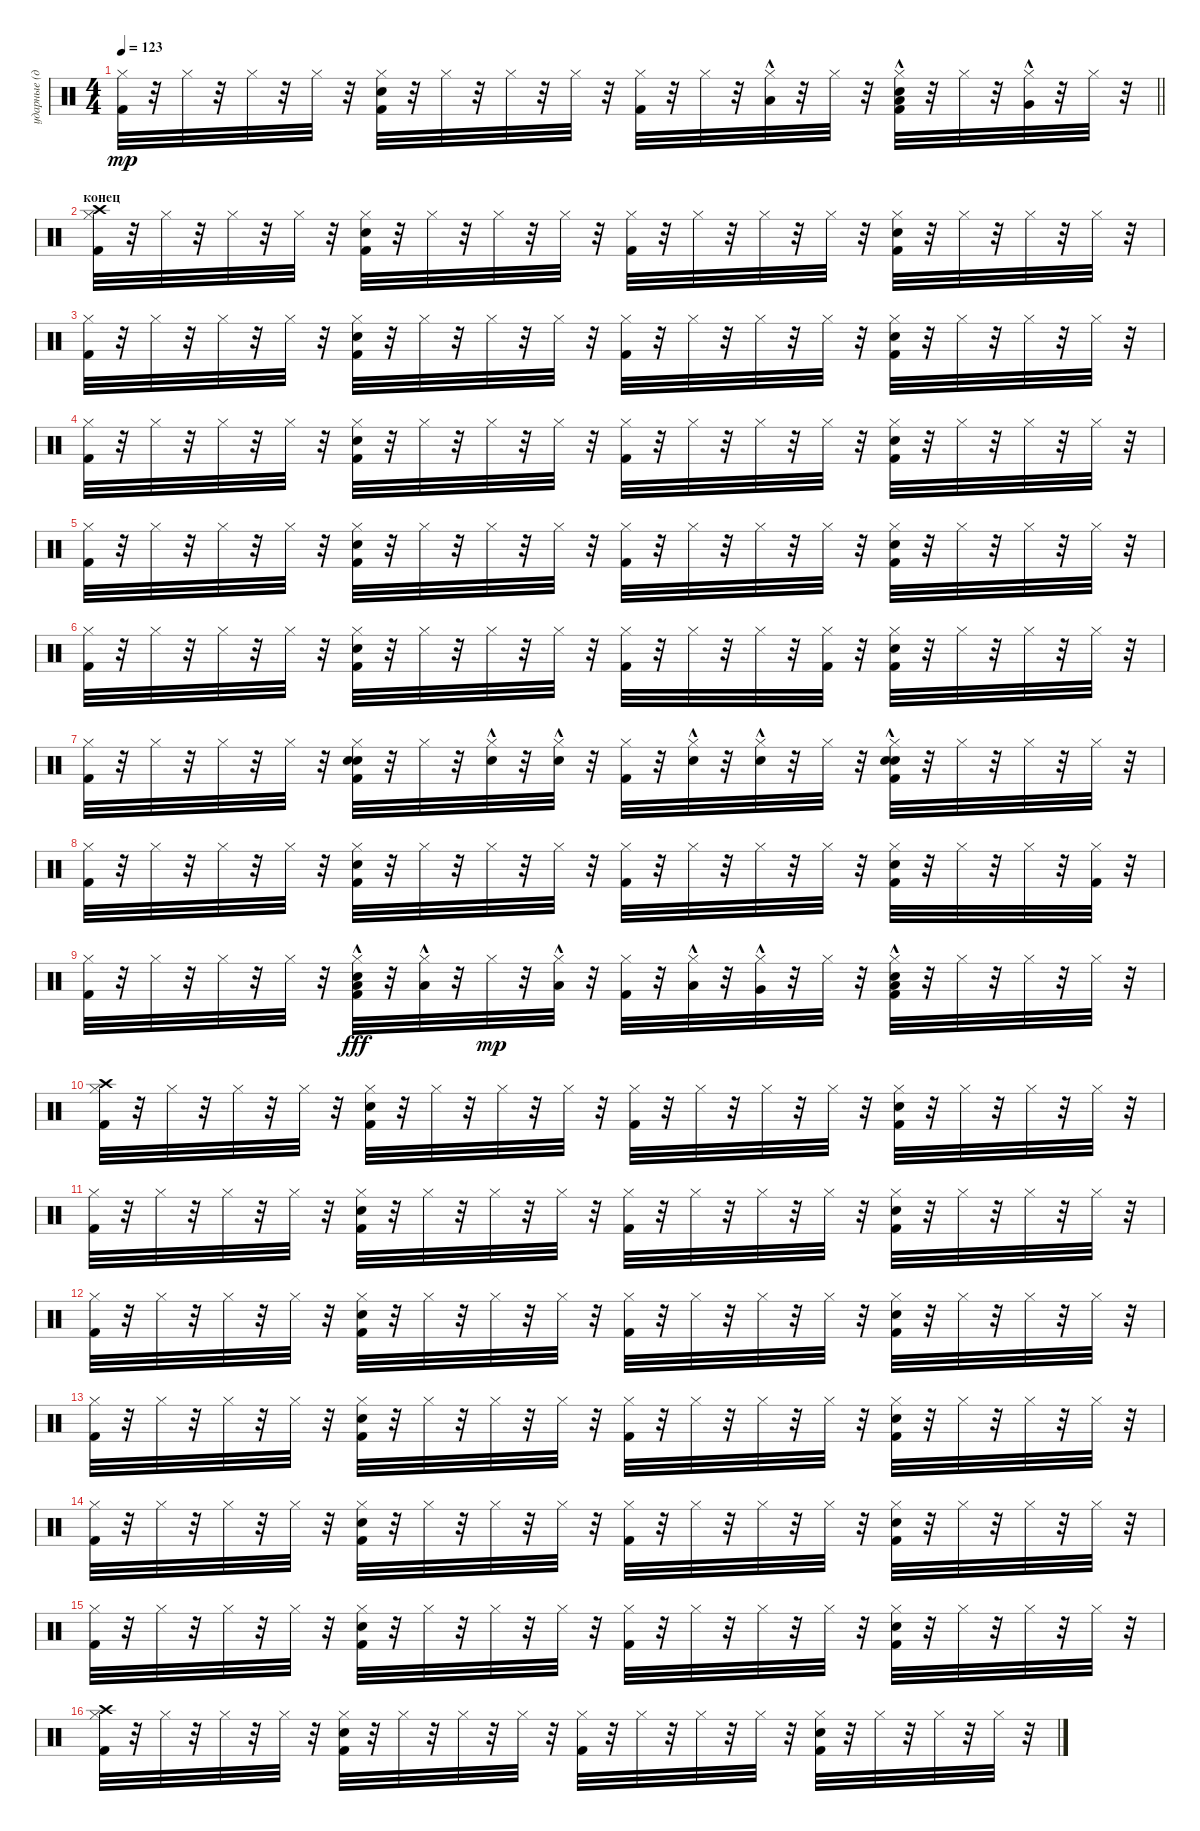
\track ("ударные (драм-машина)" "ударные (д") {instrument percussion}
\staff {score}
\articulation defaults
\ts (4 4)
\tempo 123
\clef neutral
\barLineRight lightlight
\ks c
("Kick (hit) 2" "Hi-Hat (closed)").32{dy mp} r.32 "Hi-Hat (closed)".32 r.32 "Hi-Hat (closed)".32 r.32 "Hi-Hat (closed)".32 r.32 ("Kick (hit) 2" "Snare (hit) 2" "Hi-Hat (closed)").32 r.32 "Hi-Hat (closed)".32 r.32 "Hi-Hat (closed)".32 r.32 "Hi-Hat (closed)".32 r.32 ("Kick (hit) 2" "Hi-Hat (closed)").32 r.32 "Hi-Hat (closed)".32 r.32 ("Low Tom (hit)"{hac} "Hi-Hat (closed)").32 r.32 "Hi-Hat (closed)".32 r.32 ("Low Tom (hit)"{hac} "Kick (hit) 2" "Snare (hit) 2" "Hi-Hat (closed)").32 r.32 "Hi-Hat (closed)".32 r.32 ("Very Low Tom (hit)"{hac} "Hi-Hat (closed)").32 r.32 "Hi-Hat (closed)".32 r.32 |
\section ("" "конец")
("Hi-Hat (closed)" "Kick (hit) 2" "Crash high (hit)").32 r.32 "Hi-Hat (closed)".32 r.32 "Hi-Hat (closed)".32 r.32 "Hi-Hat (closed)".32 r.32 ("Kick (hit) 2" "Hi-Hat (closed)" "Snare (hit) 2").32 r.32 "Hi-Hat (closed)".32 r.32 "Hi-Hat (closed)".32 r.32 "Hi-Hat (closed)".32 r.32 ("Hi-Hat (closed)" "Kick (hit) 2").32 r.32 "Hi-Hat (closed)".32 r.32 "Hi-Hat (closed)".32 r.32 "Hi-Hat (closed)".32 r.32 ("Kick (hit) 2" "Hi-Hat (closed)" "Snare (hit) 2").32 r.32 "Hi-Hat (closed)".32 r.32 "Hi-Hat (closed)".32 r.32 "Hi-Hat (closed)".32 r.32 |
("Kick (hit) 2" "Hi-Hat (closed)").32 r.32 "Hi-Hat (closed)".32 r.32 "Hi-Hat (closed)".32 r.32 "Hi-Hat (closed)".32 r.32 ("Kick (hit) 2" "Snare (hit) 2" "Hi-Hat (closed)").32 r.32 "Hi-Hat (closed)".32 r.32 "Hi-Hat (closed)".32 r.32 "Hi-Hat (closed)".32 r.32 ("Kick (hit) 2" "Hi-Hat (closed)").32 r.32 "Hi-Hat (closed)".32 r.32 "Hi-Hat (closed)".32 r.32 "Hi-Hat (closed)".32 r.32 ("Kick (hit) 2" "Snare (hit) 2" "Hi-Hat (closed)").32 r.32 "Hi-Hat (closed)".32 r.32 "Hi-Hat (closed)".32 r.32 "Hi-Hat (closed)".32 r.32 |
("Kick (hit) 2" "Hi-Hat (closed)").32 r.32 "Hi-Hat (closed)".32 r.32 "Hi-Hat (closed)".32 r.32 "Hi-Hat (closed)".32 r.32 ("Kick (hit) 2" "Snare (hit) 2" "Hi-Hat (closed)").32 r.32 "Hi-Hat (closed)".32 r.32 "Hi-Hat (closed)".32 r.32 "Hi-Hat (closed)".32 r.32 ("Kick (hit) 2" "Hi-Hat (closed)").32 r.32 "Hi-Hat (closed)".32 r.32 "Hi-Hat (closed)".32 r.32 "Hi-Hat (closed)".32 r.32 ("Kick (hit) 2" "Snare (hit) 2" "Hi-Hat (closed)").32 r.32 "Hi-Hat (closed)".32 r.32 "Hi-Hat (closed)".32 r.32 "Hi-Hat (closed)".32 r.32 |
("Kick (hit) 2" "Hi-Hat (closed)").32 r.32 "Hi-Hat (closed)".32 r.32 "Hi-Hat (closed)".32 r.32 "Hi-Hat (closed)".32 r.32 ("Kick (hit) 2" "Snare (hit) 2" "Hi-Hat (closed)").32 r.32 "Hi-Hat (closed)".32 r.32 "Hi-Hat (closed)".32 r.32 "Hi-Hat (closed)".32 r.32 ("Kick (hit) 2" "Hi-Hat (closed)").32 r.32 "Hi-Hat (closed)".32 r.32 "Hi-Hat (closed)".32 r.32 "Hi-Hat (closed)".32 r.32 ("Kick (hit) 2" "Snare (hit) 2" "Hi-Hat (closed)").32 r.32 "Hi-Hat (closed)".32 r.32 "Hi-Hat (closed)".32 r.32 "Hi-Hat (closed)".32 r.32 |
("Kick (hit) 2" "Hi-Hat (closed)").32 r.32 "Hi-Hat (closed)".32 r.32 "Hi-Hat (closed)".32 r.32 "Hi-Hat (closed)".32 r.32 ("Kick (hit) 2" "Snare (hit) 2" "Hi-Hat (closed)").32 r.32 "Hi-Hat (closed)".32 r.32 "Hi-Hat (closed)".32 r.32 "Hi-Hat (closed)".32 r.32 ("Kick (hit) 2" "Hi-Hat (closed)").32 r.32 "Hi-Hat (closed)".32 r.32 "Hi-Hat (closed)".32 r.32 ("Kick (hit) 2" "Hi-Hat (closed)").32 r.32 ("Snare (hit) 2" "Hi-Hat (closed)" "Kick (hit) 2").32 r.32 "Hi-Hat (closed)".32 r.32 "Hi-Hat (closed)".32 r.32 "Hi-Hat (closed)".32 r.32 |
("Kick (hit) 2" "Hi-Hat (closed)").32 r.32 "Hi-Hat (closed)".32 r.32 "Hi-Hat (closed)".32 r.32 "Hi-Hat (closed)".32 r.32 ("Hand Clap (hit)" "Kick (hit) 2" "Snare (hit) 2" "Hi-Hat (closed)").32 r.32 "Hi-Hat (closed)".32 r.32 ("Hand Clap (hit)"{hac} "Hi-Hat (closed)").32 r.32 ("Hand Clap (hit)"{hac} "Hi-Hat (closed)").32 r.32 ("Kick (hit) 2" "Hi-Hat (closed)").32 r.32 ("Hand Clap (hit)"{hac} "Hi-Hat (closed)").32 r.32 ("Hand Clap (hit)"{hac} "Hi-Hat (closed)").32 r.32 "Hi-Hat (closed)".32 r.32 ("Kick (hit) 2" "Snare (hit) 2"{hac} "Hi-Hat (closed)" "Hand Clap (hit)").32 r.32 "Hi-Hat (closed)".32 r.32 "Hi-Hat (closed)".32 r.32 "Hi-Hat (closed)".32 r.32 |
("Kick (hit) 2" "Hi-Hat (closed)").32 r.32 "Hi-Hat (closed)".32 r.32 "Hi-Hat (closed)".32 r.32 "Hi-Hat (closed)".32 r.32 ("Kick (hit) 2" "Snare (hit) 2" "Hi-Hat (closed)").32 r.32 "Hi-Hat (closed)".32 r.32 "Hi-Hat (closed)".32 r.32 "Hi-Hat (closed)".32 r.32 ("Kick (hit) 2" "Hi-Hat (closed)").32 r.32 "Hi-Hat (closed)".32 r.32 "Hi-Hat (closed)".32 r.32 "Hi-Hat (closed)".32 r.32 ("Kick (hit) 2" "Snare (hit) 2" "Hi-Hat (closed)").32 r.32 "Hi-Hat (closed)".32 r.32 "Hi-Hat (closed)".32 r.32 ("Kick (hit) 2" "Hi-Hat (closed)").32 r.32 |
("Kick (hit) 2" "Hi-Hat (closed)").32 r.32 "Hi-Hat (closed)".32 r.32 "Hi-Hat (closed)".32 r.32 "Hi-Hat (closed)".32 r.32 ("Kick (hit) 2" "Snare (hit) 2" "Hi-Hat (closed)" "Low Tom (hit)"{hac}).32{dy fff} r.32 ("Hi-Hat (closed)" "Low Tom (hit)"{hac}).32 r.32 "Hi-Hat (closed)".32{dy mp} r.32 ("Low Tom (hit)"{hac} "Hi-Hat (closed)").32 r.32 ("Kick (hit) 2" "Hi-Hat (closed)").32 r.32 ("Low Tom (hit)"{hac} "Hi-Hat (closed)").32 r.32 ("Very Low Tom (hit)"{hac} "Hi-Hat (closed)").32 r.32 "Hi-Hat (closed)".32 r.32 ("Kick (hit) 2" "Low Floor Tom (hit)"{hac} "Snare (hit) 2" "Hi-Hat (closed)").32 r.32 "Hi-Hat (closed)".32 r.32 "Hi-Hat (closed)".32 r.32 "Hi-Hat (closed)".32 r.32 |
("Hi-Hat (closed)" "Kick (hit) 2" "Crash high (hit)").32 r.32 "Hi-Hat (closed)".32 r.32 "Hi-Hat (closed)".32 r.32 "Hi-Hat (closed)".32 r.32 ("Kick (hit) 2" "Hi-Hat (closed)" "Snare (hit) 2").32 r.32 "Hi-Hat (closed)".32 r.32 "Hi-Hat (closed)".32 r.32 "Hi-Hat (closed)".32 r.32 ("Hi-Hat (closed)" "Kick (hit) 2").32 r.32 "Hi-Hat (closed)".32 r.32 "Hi-Hat (closed)".32 r.32 "Hi-Hat (closed)".32 r.32 ("Kick (hit) 2" "Hi-Hat (closed)" "Snare (hit) 2").32 r.32 "Hi-Hat (closed)".32 r.32 "Hi-Hat (closed)".32 r.32 "Hi-Hat (closed)".32 r.32 |
("Kick (hit) 2" "Hi-Hat (closed)").32 r.32 "Hi-Hat (closed)".32 r.32 "Hi-Hat (closed)".32 r.32 "Hi-Hat (closed)".32 r.32 ("Kick (hit) 2" "Snare (hit) 2" "Hi-Hat (closed)").32 r.32 "Hi-Hat (closed)".32 r.32 "Hi-Hat (closed)".32 r.32 "Hi-Hat (closed)".32 r.32 ("Kick (hit) 2" "Hi-Hat (closed)").32 r.32 "Hi-Hat (closed)".32 r.32 "Hi-Hat (closed)".32 r.32 "Hi-Hat (closed)".32 r.32 ("Kick (hit) 2" "Snare (hit) 2" "Hi-Hat (closed)").32 r.32 "Hi-Hat (closed)".32 r.32 "Hi-Hat (closed)".32 r.32 "Hi-Hat (closed)".32 r.32 |
("Kick (hit) 2" "Hi-Hat (closed)").32 r.32 "Hi-Hat (closed)".32 r.32 "Hi-Hat (closed)".32 r.32 "Hi-Hat (closed)".32 r.32 ("Kick (hit) 2" "Snare (hit) 2" "Hi-Hat (closed)").32 r.32 "Hi-Hat (closed)".32 r.32 "Hi-Hat (closed)".32 r.32 "Hi-Hat (closed)".32 r.32 ("Kick (hit) 2" "Hi-Hat (closed)").32 r.32 "Hi-Hat (closed)".32 r.32 "Hi-Hat (closed)".32 r.32 "Hi-Hat (closed)".32 r.32 ("Kick (hit) 2" "Snare (hit) 2" "Hi-Hat (closed)").32 r.32 "Hi-Hat (closed)".32 r.32 "Hi-Hat (closed)".32 r.32 "Hi-Hat (closed)".32 r.32 |
("Kick (hit) 2" "Hi-Hat (closed)").32 r.32 "Hi-Hat (closed)".32 r.32 "Hi-Hat (closed)".32 r.32 "Hi-Hat (closed)".32 r.32 ("Kick (hit) 2" "Snare (hit) 2" "Hi-Hat (closed)").32 r.32 "Hi-Hat (closed)".32 r.32 "Hi-Hat (closed)".32 r.32 "Hi-Hat (closed)".32 r.32 ("Kick (hit) 2" "Hi-Hat (closed)").32 r.32 "Hi-Hat (closed)".32 r.32 "Hi-Hat (closed)".32 r.32 "Hi-Hat (closed)".32 r.32 ("Kick (hit) 2" "Snare (hit) 2" "Hi-Hat (closed)").32 r.32 "Hi-Hat (closed)".32 r.32 "Hi-Hat (closed)".32 r.32 "Hi-Hat (closed)".32 r.32 |
("Kick (hit) 2" "Hi-Hat (closed)").32 r.32 "Hi-Hat (closed)".32 r.32 "Hi-Hat (closed)".32 r.32 "Hi-Hat (closed)".32 r.32 ("Kick (hit) 2" "Snare (hit) 2" "Hi-Hat (closed)").32 r.32 "Hi-Hat (closed)".32 r.32 "Hi-Hat (closed)".32 r.32 "Hi-Hat (closed)".32 r.32 ("Kick (hit) 2" "Hi-Hat (closed)").32 r.32 "Hi-Hat (closed)".32 r.32 "Hi-Hat (closed)".32 r.32 "Hi-Hat (closed)".32 r.32 ("Snare (hit) 2" "Hi-Hat (closed)" "Kick (hit) 2").32 r.32 "Hi-Hat (closed)".32 r.32 "Hi-Hat (closed)".32 r.32 "Hi-Hat (closed)".32 r.32 |
("Kick (hit) 2" "Hi-Hat (closed)").32 r.32 "Hi-Hat (closed)".32 r.32 "Hi-Hat (closed)".32 r.32 "Hi-Hat (closed)".32 r.32 ("Kick (hit) 2" "Snare (hit) 2" "Hi-Hat (closed)").32 r.32 "Hi-Hat (closed)".32 r.32 "Hi-Hat (closed)".32 r.32 "Hi-Hat (closed)".32 r.32 ("Kick (hit) 2" "Hi-Hat (closed)").32 r.32 "Hi-Hat (closed)".32 r.32 "Hi-Hat (closed)".32 r.32 "Hi-Hat (closed)".32 r.32 ("Kick (hit) 2" "Snare (hit) 2" "Hi-Hat (closed)").32 r.32 "Hi-Hat (closed)".32 r.32 "Hi-Hat (closed)".32 r.32 "Hi-Hat (closed)".32 r.32 |
("Crash high (hit)" "Kick (hit) 2" "Hi-Hat (closed)").32 r.32 "Hi-Hat (closed)".32 r.32 "Hi-Hat (closed)".32 r.32 "Hi-Hat (closed)".32 r.32 ("Kick (hit) 2" "Snare (hit) 2" "Hi-Hat (closed)").32 r.32 "Hi-Hat (closed)".32 r.32 "Hi-Hat (closed)".32 r.32 "Hi-Hat (closed)".32 r.32 ("Kick (hit) 2" "Hi-Hat (closed)").32 r.32 "Hi-Hat (closed)".32 r.32 "Hi-Hat (closed)".32 r.32 "Hi-Hat (closed)".32 r.32 ("Kick (hit) 2" "Snare (hit) 2" "Hi-Hat (closed)").32 r.32 "Hi-Hat (closed)".32 r.32 "Hi-Hat (closed)".32 r.32 "Hi-Hat (closed)".32 r.32
